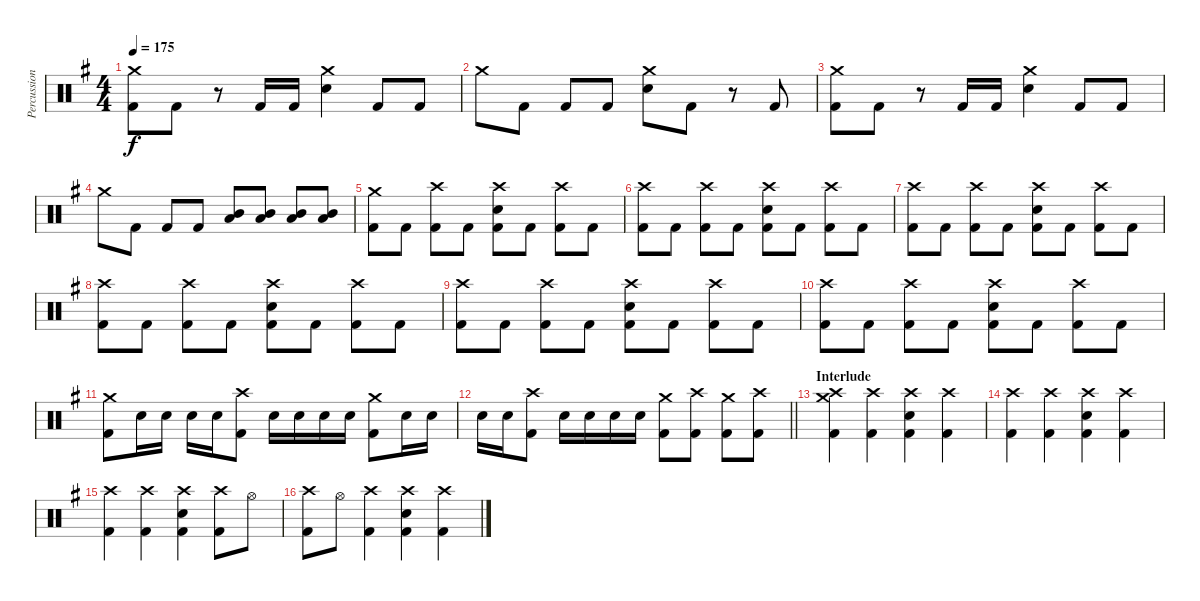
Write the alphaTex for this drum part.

\track ("Percussion" "Percussion") {instrument percussion}
\staff {score}
\articulation defaults
\ts (4 4)
\tempo 175
\clef neutral
\ks g
("Crash medium (hit)" "Kick (hit) 2").8{dy f} "Kick (hit) 2".8 r.8 "Kick (hit) 2".16 "Kick (hit) 2".16 ("Crash medium (hit)" "Snare (hit) 2").4 "Kick (hit) 2".8 "Kick (hit) 2".8 |
"Crash medium (hit)".8 "Kick (hit) 2".8 "Kick (hit) 2".8 "Kick (hit) 2".8 ("Crash medium (hit)" "Snare (hit) 2").8 "Kick (hit) 2".8 r.8 "Kick (hit) 2".8 |
("Crash medium (hit)" "Kick (hit) 2").8 "Kick (hit) 2".8 r.8 "Kick (hit) 2".16 "Kick (hit) 2".16 ("Crash medium (hit)" "Snare (hit) 2").4 "Kick (hit) 2".8 "Kick (hit) 2".8 |
"Crash medium (hit)".8 "Kick (hit) 2".8 "Kick (hit) 2".8 "Kick (hit) 2".8 ("Mid Tom (hit)" "Low Floor Tom (hit)").8 ("Mid Tom (hit)" "Low Floor Tom (hit)").8 ("Mid Tom (hit)" "Low Floor Tom (hit)").8 ("Mid Tom (hit)" "Low Floor Tom (hit)").8 |
("Crash medium (hit)" "Kick (hit) 2").8 "Kick (hit) 2".8 ("Crash high (hit)" "Kick (hit) 2").8 "Kick (hit) 2".8 ("Crash high (hit)" "Snare (hit) 2" "Kick (hit) 2").8 "Kick (hit) 2".8 ("Crash high (hit)" "Kick (hit) 2").8 "Kick (hit) 2".8 |
("Crash high (hit)" "Kick (hit) 2").8 "Kick (hit) 2".8 ("Crash high (hit)" "Kick (hit) 2").8 "Kick (hit) 2".8 ("Crash high (hit)" "Snare (hit) 2" "Kick (hit) 2").8 "Kick (hit) 2".8 ("Crash high (hit)" "Kick (hit) 2").8 "Kick (hit) 2".8 |
("Crash high (hit)" "Kick (hit) 2").8 "Kick (hit) 2".8 ("Crash high (hit)" "Kick (hit) 2").8 "Kick (hit) 2".8 ("Crash high (hit)" "Snare (hit) 2" "Kick (hit) 2").8 "Kick (hit) 2".8 ("Crash high (hit)" "Kick (hit) 2").8 "Kick (hit) 2".8 |
("Crash high (hit)" "Kick (hit) 2").8 "Kick (hit) 2".8 ("Crash high (hit)" "Kick (hit) 2").8 "Kick (hit) 2".8 ("Crash high (hit)" "Snare (hit) 2" "Kick (hit) 2").8 "Kick (hit) 2".8 ("Crash high (hit)" "Kick (hit) 2").8 "Kick (hit) 2".8 |
("Crash high (hit)" "Kick (hit) 2").8 "Kick (hit) 2".8 ("Crash high (hit)" "Kick (hit) 2").8 "Kick (hit) 2".8 ("Crash high (hit)" "Snare (hit) 2" "Kick (hit) 2").8 "Kick (hit) 2".8 ("Crash high (hit)" "Kick (hit) 2").8 "Kick (hit) 2".8 |
("Crash high (hit)" "Kick (hit) 2").8 "Kick (hit) 2".8 ("Crash high (hit)" "Kick (hit) 2").8 "Kick (hit) 2".8 ("Crash high (hit)" "Snare (hit) 2" "Kick (hit) 2").8 "Kick (hit) 2".8 ("Crash high (hit)" "Kick (hit) 2").8 "Kick (hit) 2".8 |
("Crash medium (hit)" "Kick (hit) 2").8 "Snare (hit) 2".16 "Snare (hit) 2".16 "Snare (hit) 2".16 "Snare (hit) 2".16 ("Crash high (hit)" "Kick (hit) 2").8 "Snare (hit) 2".16 "Snare (hit) 2".16 "Snare (hit) 2".16 "Snare (hit) 2".16 ("Crash medium (hit)" "Kick (hit) 2").8 "Snare (hit) 2".16 "Snare (hit) 2".16 |
\barLineRight lightlight "Snare (hit) 2".16 "Snare (hit) 2".16
("Crash high (hit)" "Kick (hit) 2").8 "Snare (hit) 2".16 "Snare (hit) 2".16 "Snare (hit) 2".16 "Snare (hit) 2".16 ("Crash medium (hit)" "Kick (hit) 2").8 ("Crash high (hit)" "Kick (hit) 2").8 ("Crash medium (hit)" "Kick (hit) 2").8 ("Crash high (hit)" "Kick (hit) 2").8 |
\section ("" "Interlude")
("Crash medium (hit)" "Crash high (hit)" "Kick (hit) 2").4 ("Crash high (hit)" "Kick (hit) 2").4 ("Crash high (hit)" "Snare (hit) 2" "Kick (hit) 2").4 ("Crash high (hit)" "Kick (hit) 2").4 |
("Crash high (hit)" "Kick (hit) 2").4 ("Crash high (hit)" "Kick (hit) 2").4 ("Crash high (hit)" "Snare (hit) 2" "Kick (hit) 2").4 ("Crash high (hit)" "Kick (hit) 2").4 |
("Crash high (hit)" "Kick (hit) 2").4 ("Crash high (hit)" "Kick (hit) 2").4 ("Crash high (hit)" "Snare (hit) 2" "Kick (hit) 2").4 ("Crash high (hit)" "Kick (hit) 2").8 "Hi-Hat (open)".8 |
("Crash high (hit)" "Kick (hit) 2").8 "Hi-Hat (open)".8 ("Crash high (hit)" "Kick (hit) 2").4 ("Crash high (hit)" "Snare (hit) 2" "Kick (hit) 2").4 ("Crash high (hit)" "Kick (hit) 2").4
